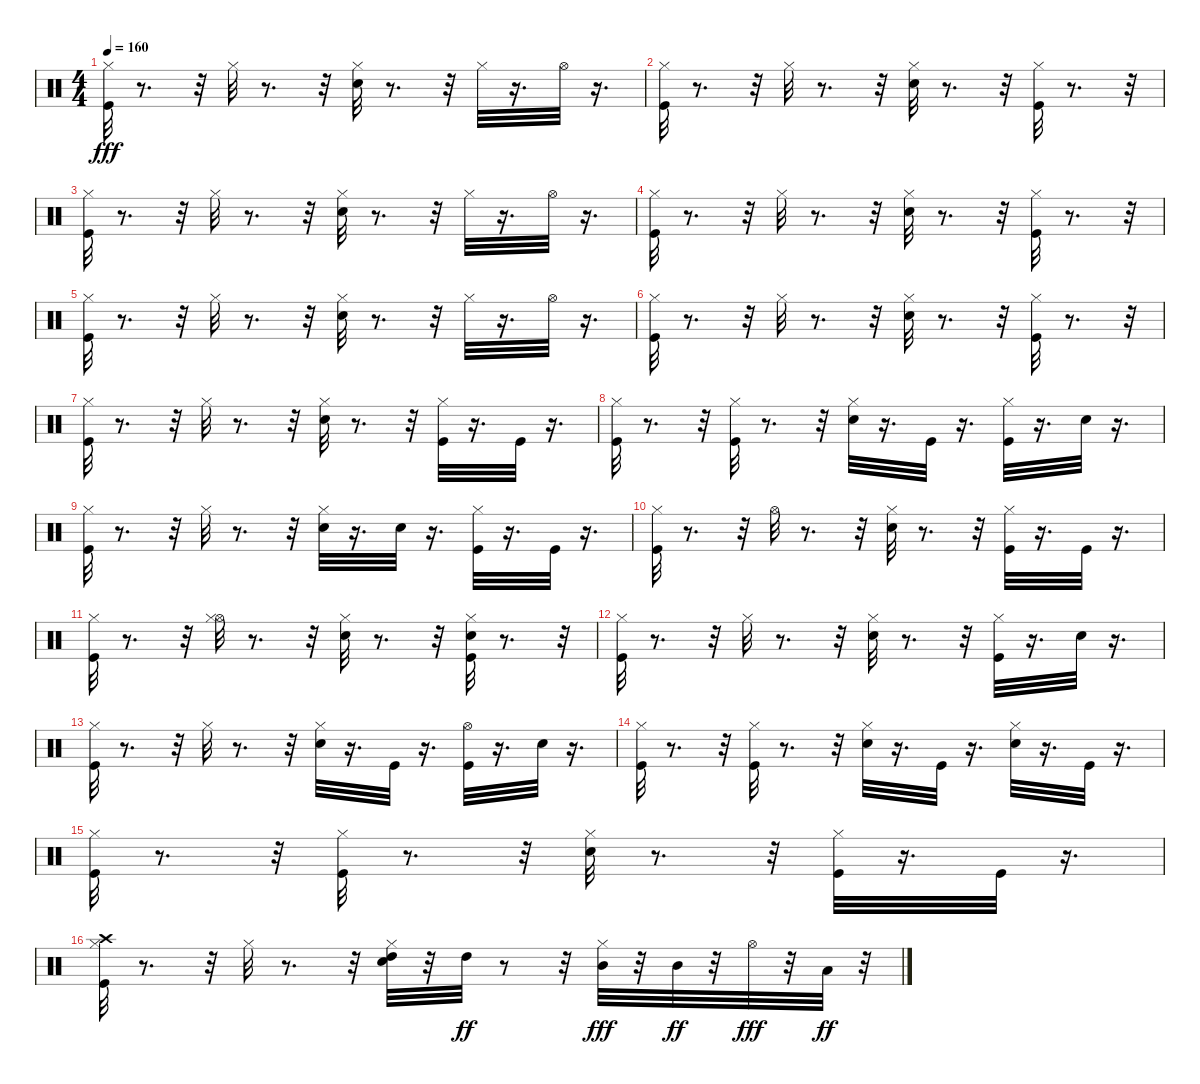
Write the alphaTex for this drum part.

\track "" {instrument percussion}
\staff {score}
\articulation defaults
\ts (4 4)
\tempo 160
\clef neutral
\ks c
("Hi-Hat (closed)" "Kick (hit)").32{dy fff} r.8{d} r.32 "Hi-Hat (closed)".32 r.8{d} r.32 ("Hi-Hat (closed)" "Electric Snare (hit)").32 r.8{d} r.32 "Hi-Hat (closed)".32 r.16{d} "Hi-Hat (open)".32 r.16{d} |
("Hi-Hat (closed)" "Kick (hit)").32 r.8{d} r.32 "Hi-Hat (closed)".32 r.8{d} r.32 ("Hi-Hat (closed)" "Electric Snare (hit)").32 r.8{d} r.32 ("Hi-Hat (closed)" "Kick (hit)").32 r.8{d} r.32 |
("Hi-Hat (closed)" "Kick (hit)").32 r.8{d} r.32 "Hi-Hat (closed)".32 r.8{d} r.32 ("Hi-Hat (closed)" "Electric Snare (hit)").32 r.8{d} r.32 "Hi-Hat (closed)".32 r.16{d} "Hi-Hat (open)".32 r.16{d} |
("Hi-Hat (closed)" "Kick (hit)").32 r.8{d} r.32 "Hi-Hat (closed)".32 r.8{d} r.32 ("Hi-Hat (closed)" "Electric Snare (hit)").32 r.8{d} r.32 ("Hi-Hat (closed)" "Kick (hit)").32 r.8{d} r.32 |
("Hi-Hat (closed)" "Kick (hit)").32 r.8{d} r.32 "Hi-Hat (closed)".32 r.8{d} r.32 ("Electric Snare (hit)" "Hi-Hat (closed)").32 r.8{d} r.32 "Hi-Hat (closed)".32 r.16{d} "Hi-Hat (open)".32 r.16{d} |
("Hi-Hat (closed)" "Kick (hit)").32 r.8{d} r.32 "Hi-Hat (closed)".32 r.8{d} r.32 ("Electric Snare (hit)" "Hi-Hat (closed)").32 r.8{d} r.32 ("Hi-Hat (closed)" "Kick (hit)").32 r.8{d} r.32 |
("Hi-Hat (closed)" "Kick (hit)").32 r.8{d} r.32 "Hi-Hat (closed)".32 r.8{d} r.32 ("Electric Snare (hit)" "Hi-Hat (closed)").32 r.8{d} r.32 ("Kick (hit)" "Hi-Hat (closed)").32 r.16{d} "Kick (hit)".32 r.16{d} |
("Kick (hit)" "Hi-Hat (closed)").32 r.8{d} r.32 ("Kick (hit)" "Hi-Hat (closed)").32 r.8{d} r.32 ("Electric Snare (hit)" "Hi-Hat (closed)").32 r.16{d} "Kick (hit)".32 r.16{d} ("Kick (hit)" "Hi-Hat (closed)").32 r.16{d} "Electric Snare (hit)".32 r.16{d} |
("Kick (hit)" "Hi-Hat (closed)").32 r.8{d} r.32 "Hi-Hat (closed)".32 r.8{d} r.32 ("Electric Snare (hit)" "Hi-Hat (closed)").32 r.16{d} "Electric Snare (hit)".32 r.16{d} ("Kick (hit)" "Hi-Hat (closed)").32 r.16{d} "Kick (hit)".32 r.16{d} |
("Kick (hit)" "Hi-Hat (closed)").32 r.8{d} r.32 "Hi-Hat (open)".32 r.8{d} r.32 ("Electric Snare (hit)" "Hi-Hat (closed)").32 r.8{d} r.32 ("Kick (hit)" "Hi-Hat (closed)").32 r.16{d} "Kick (hit)".32 r.16{d} |
("Kick (hit)" "Hi-Hat (closed)").32 r.8{d} r.32 ("Hi-Hat (open)" "Hi-Hat (closed)").32 r.8{d} r.32 ("Hi-Hat (closed)" "Electric Snare (hit)").32 r.8{d} r.32 ("Hi-Hat (closed)" "Kick (hit)" "Electric Snare (hit)").32 r.8{d} r.32 |
("Hi-Hat (closed)" "Kick (hit)").32 r.8{d} r.32 "Hi-Hat (closed)".32 r.8{d} r.32 ("Electric Snare (hit)" "Hi-Hat (closed)").32 r.8{d} r.32 ("Kick (hit)" "Hi-Hat (closed)").32 r.16{d} "Electric Snare (hit)".32 r.16{d} |
("Hi-Hat (closed)" "Kick (hit)").32 r.8{d} r.32 "Hi-Hat (closed)".32 r.8{d} r.32 ("Hi-Hat (closed)" "Electric Snare (hit)").32 r.16{d} "Kick (hit)".32 r.16{d} ("Hi-Hat (open)" "Kick (hit)").32 r.16{d} "Electric Snare (hit)".32 r.16{d} |
("Hi-Hat (closed)" "Kick (hit)").32 r.8{d} r.32 ("Kick (hit)" "Hi-Hat (closed)").32 r.8{d} r.32 ("Hi-Hat (closed)" "Electric Snare (hit)").32 r.16{d} "Kick (hit)".32 r.16{d} ("Hi-Hat (closed)" "Electric Snare (hit)").32 r.16{d} "Kick (hit)".32 r.16{d} |
("Hi-Hat (closed)" "Kick (hit)").32 r.8{d} r.32 ("Kick (hit)" "Hi-Hat (closed)").32 r.8{d} r.32 ("Hi-Hat (closed)" "Electric Snare (hit)").32 r.8{d} r.32 ("Kick (hit)" "Hi-Hat (closed)").32 r.16{d} "Kick (hit)".32 r.16{d} |
("Kick (hit)" "Crash high (hit)" "Hi-Hat (closed)").32 r.8{d} r.32 "Hi-Hat (closed)".32 r.8{d} r.32 ("Electric Snare (hit)" "Hi-Hat (closed)" "High Tom (hit)").32 r.32 "High Tom (hit)".32{dy ff} r.8 r.32 ("Hi-Hat (closed)" "Mid Tom (hit)").32{dy fff} r.32 "Mid Tom (hit)".32{dy ff} r.32 "Hi-Hat (open)".32{dy fff} r.32 "Low Tom (hit)".32{dy ff} r.32
